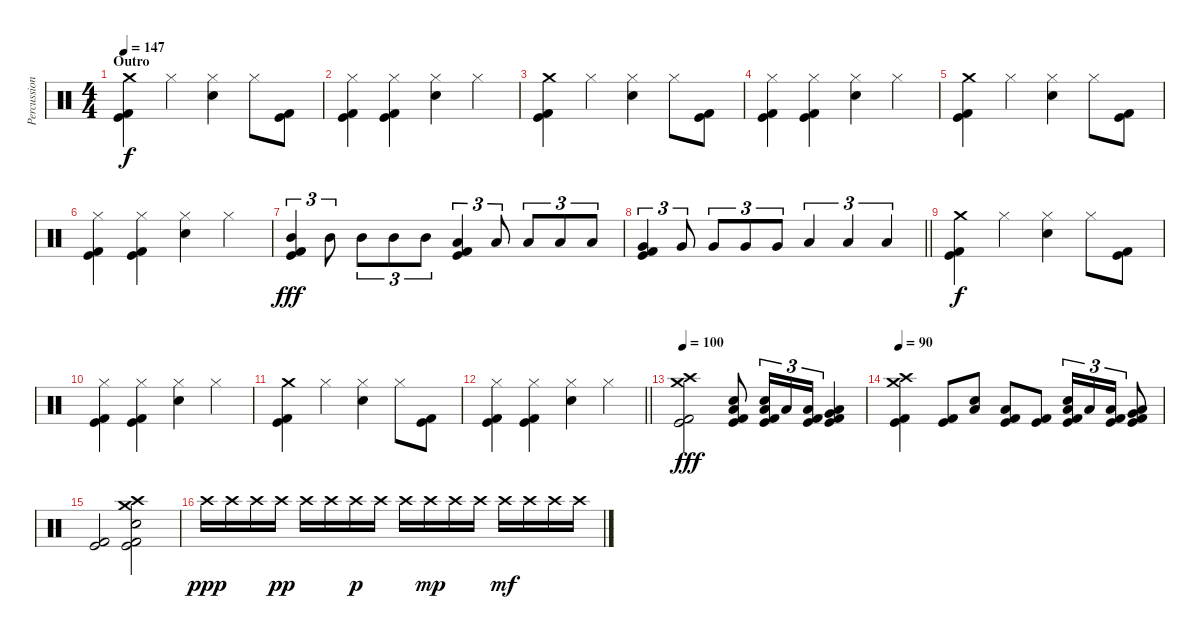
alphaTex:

\track ("Percussion" "Percussion") {instrument percussion}
\staff {score}
\articulation defaults
\ts (4 4)
\section ("" "Outro")
\tempo 147
\clef neutral
\ks c
("Crash medium (hit)" "Kick (hit) 2" "Kick (hit)").4{dy f} "Hi-Hat (closed)".4 ("Hi-Hat (closed)" "Snare (hit) 2").4 "Hi-Hat (closed)".8 ("Kick (hit) 2" "Kick (hit)").8 |
("Hi-Hat (closed)" "Kick (hit) 2" "Kick (hit)").4 ("Hi-Hat (closed)" "Kick (hit) 2" "Kick (hit)").4 ("Hi-Hat (closed)" "Snare (hit) 2").4 "Hi-Hat (closed)".4 |
("Crash medium (hit)" "Kick (hit) 2" "Kick (hit)").4 "Hi-Hat (closed)".4 ("Hi-Hat (closed)" "Snare (hit) 2").4 "Hi-Hat (closed)".8 ("Kick (hit) 2" "Kick (hit)").8 |
("Hi-Hat (closed)" "Kick (hit) 2" "Kick (hit)").4 ("Hi-Hat (closed)" "Kick (hit) 2" "Kick (hit)").4 ("Hi-Hat (closed)" "Snare (hit) 2").4 "Hi-Hat (closed)".4 |
("Crash medium (hit)" "Kick (hit) 2" "Kick (hit)").4 "Hi-Hat (closed)".4 ("Hi-Hat (closed)" "Snare (hit) 2").4 "Hi-Hat (closed)".8 ("Kick (hit) 2" "Kick (hit)").8 |
("Hi-Hat (closed)" "Kick (hit) 2" "Kick (hit)").4 ("Hi-Hat (closed)" "Kick (hit) 2" "Kick (hit)").4 ("Hi-Hat (closed)" "Snare (hit) 2").4 "Hi-Hat (closed)".4 |
("Mid Tom (hit)" "Kick (hit) 2" "Kick (hit)").4{tu (3 2) dy fff} "Mid Tom (hit)".8{tu (3 2)} "Mid Tom (hit)".8{tu (3 2)} "Mid Tom (hit)".8{tu (3 2)} "Mid Tom (hit)".8{tu (3 2)} ("Low Tom (hit)" "Kick (hit) 2" "Kick (hit)").4{tu (3 2)} "Low Tom (hit)".8{tu (3 2)} "Low Tom (hit)".8{tu (3 2)} "Low Tom (hit)".8{tu (3 2)} "Low Tom (hit)".8{tu (3 2)} |
\barLineRight lightlight
("Very Low Tom (hit)" "Kick (hit) 2" "Kick (hit)").4{tu (3 2)} "Very Low Tom (hit)".8{tu (3 2)} "Very Low Tom (hit)".8{tu (3 2)} "Very Low Tom (hit)".8{tu (3 2)} "Very Low Tom (hit)".8{tu (3 2)} "Low Floor Tom (hit)".4{tu (3 2)} "Low Floor Tom (hit)".4{tu (3 2)} "Low Floor Tom (hit)".4{tu (3 2)} |
("Crash medium (hit)" "Kick (hit) 2" "Kick (hit)").4{dy f} "Hi-Hat (closed)".4 ("Hi-Hat (closed)" "Snare (hit) 2").4 "Hi-Hat (closed)".8 ("Kick (hit) 2" "Kick (hit)").8 |
("Hi-Hat (closed)" "Kick (hit) 2" "Kick (hit)").4 ("Hi-Hat (closed)" "Kick (hit) 2" "Kick (hit)").4 ("Hi-Hat (closed)" "Snare (hit) 2").4 "Hi-Hat (closed)".4 |
("Crash medium (hit)" "Kick (hit) 2" "Kick (hit)").4 "Hi-Hat (closed)".4 ("Hi-Hat (closed)" "Snare (hit) 2").4 "Hi-Hat (closed)".8 ("Kick (hit) 2" "Kick (hit)").8 |
\barLineRight lightlight
("Hi-Hat (closed)" "Kick (hit) 2" "Kick (hit)").4 ("Hi-Hat (closed)" "Kick (hit) 2" "Kick (hit)").4 ("Hi-Hat (closed)" "Snare (hit) 2").4 "Hi-Hat (closed)".4 |
\tempo 100
("Crash medium (hit)" "Crash high (hit)" "Kick (hit) 2" "Kick (hit)").2{dy fff} ("Snare (hit) 2" "Low Tom (hit)" "Kick (hit) 2" "Kick (hit)").8 ("Snare (hit) 2" "Low Tom (hit)" "Kick (hit) 2" "Kick (hit)").16{tu (3 2)} "Low Tom (hit)".16{tu (3 2)} ("Low Floor Tom (hit)" "Kick (hit) 2" "Kick (hit)").16{tu (3 2)} ("Very Low Tom (hit)" "Low Floor Tom (hit)" "Kick (hit) 2" "Kick (hit)").4 |
\tempo 90
("Crash medium (hit)" "Crash high (hit)" "Kick (hit) 2" "Kick (hit)").4 ("Kick (hit) 2" "Kick (hit)").8 ("Snare (hit) 2" "Low Tom (hit)").8 ("Low Floor Tom (hit)" "Kick (hit) 2" "Kick (hit)").8 ("Kick (hit) 2" "Kick (hit)").8 ("Snare (hit) 2" "Low Tom (hit)" "Kick (hit) 2" "Kick (hit)").16{tu (3 2)} "Low Tom (hit)".16{tu (3 2)} ("Low Floor Tom (hit)" "Kick (hit) 2" "Kick (hit)").16{tu (3 2)} ("Very Low Tom (hit)" "Low Floor Tom (hit)" "Kick (hit) 2" "Kick (hit)").8 |
("Kick (hit) 2" "Kick (hit)").2 ("Crash medium (hit)" "Crash high (hit)" "Snare (hit) 2" "Kick (hit) 2" "Kick (hit)").2 |
"Crash high (hit)".16{dy ppp} "Crash high (hit)".16 "Crash high (hit)".16 "Crash high (hit)".16{dy pp} "Crash high (hit)".16 "Crash high (hit)".16 "Crash high (hit)".16{dy p} "Crash high (hit)".16 "Crash high (hit)".16 "Crash high (hit)".16{dy mp} "Crash high (hit)".16 "Crash high (hit)".16 "Crash high (hit)".16{dy mf} "Crash high (hit)".16 "Crash high (hit)".16 "Crash high (hit)".16
